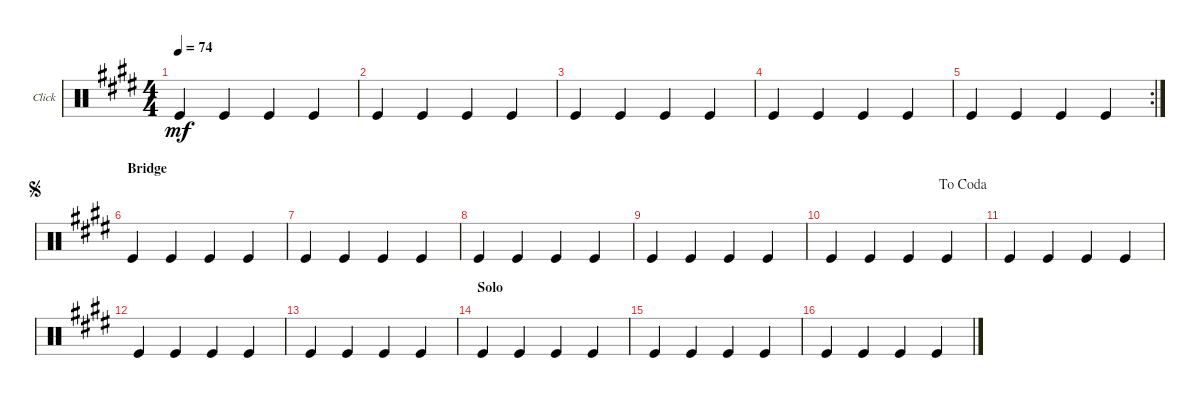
\bracketExtendMode groupsimilarinstruments
\useSystemSignSeparator
\multiTrackTrackNamePolicy allsystems
\firstSystemTrackNameOrientation horizontal
\otherSystemsTrackNameOrientation horizontal
\track ("Click" "Click") {mute instrument percussion}
\staff {score}
\articulation defaults
\ts (4 4)
\tempo 74
\clef neutral
\scale
0.333333
\ks c#minor "Kick (hit)".4{dy mf} "Kick (hit)".4 "Kick (hit)".4 "Kick (hit)".4
|
\scale
0.333333 "Kick (hit)".4 "Kick (hit)".4 "Kick (hit)".4 "Kick (hit)".4 |
\scale
0.333333 "Kick (hit)".4 "Kick (hit)".4 "Kick (hit)".4 "Kick (hit)".4 |
\scale
0.333333 "Kick (hit)".4 "Kick (hit)".4 "Kick (hit)".4 "Kick (hit)".4 |
\rc 2
\scale
0.333333 "Kick (hit)".4 "Kick (hit)".4 "Kick (hit)".4 "Kick (hit)".4 |
\section ("" "Bridge")
\jump segno
\scale
0.333333 "Kick (hit)".4 "Kick (hit)".4 "Kick (hit)".4 "Kick (hit)".4 |
\scale
0.333333 "Kick (hit)".4 "Kick (hit)".4 "Kick (hit)".4 "Kick (hit)".4 |
\scale
0.333333 "Kick (hit)".4 "Kick (hit)".4 "Kick (hit)".4 "Kick (hit)".4 |
\scale
0.333333 "Kick (hit)".4 "Kick (hit)".4 "Kick (hit)".4 "Kick (hit)".4 |
\jump dacoda
\scale
0.333333 "Kick (hit)".4 "Kick (hit)".4 "Kick (hit)".4 "Kick (hit)".4 |
\scale
0.333333 "Kick (hit)".4 "Kick (hit)".4 "Kick (hit)".4 "Kick (hit)".4 |
\scale
0.333333 "Kick (hit)".4 "Kick (hit)".4 "Kick (hit)".4 "Kick (hit)".4 |
\scale
0.333333 "Kick (hit)".4 "Kick (hit)".4 "Kick (hit)".4 "Kick (hit)".4 |
\section ("" "Solo")
\scale
0.333333 "Kick (hit)".4 "Kick (hit)".4 "Kick (hit)".4 "Kick (hit)".4 |
\scale
0.333333 "Kick (hit)".4 "Kick (hit)".4 "Kick (hit)".4 "Kick (hit)".4 |
\scale
0.333333 "Kick (hit)".4 "Kick (hit)".4 "Kick (hit)".4 "Kick (hit)".4
